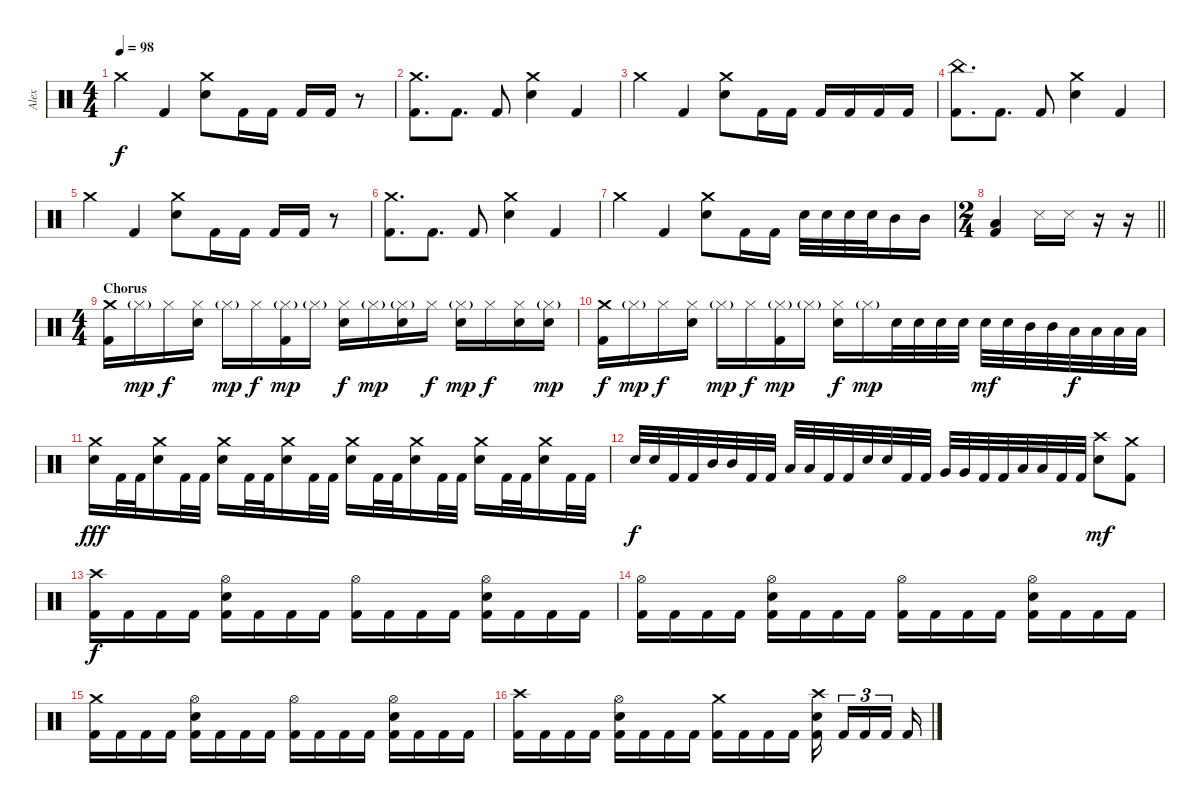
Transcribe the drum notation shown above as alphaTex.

\track ("Alex" "Alex") {instrument percussion}
\staff {score}
\articulation defaults
\ts (4 4)
\tempo 98
\clef neutral
\ks c "Crash medium (hit)".4{dy f} "Kick (hit) 2".4
("Crash medium (hit)" "Snare (hit) 2").8 "Kick (hit) 2".16 "Kick (hit) 2".16 "Kick (hit) 2".16 "Kick (hit) 2".16 r.8 |
("Crash medium (hit)" "Kick (hit) 2").8{d} "Kick (hit) 2".8{d} "Kick (hit) 2".8 ("Crash medium (hit)" "Snare (hit) 2").4 "Kick (hit) 2".4 |
"Crash medium (hit)".4 "Kick (hit) 2".4 ("Crash medium (hit)" "Snare (hit) 2").8 "Kick (hit) 2".16 "Kick (hit) 2".16 "Kick (hit) 2".16 "Kick (hit) 2".16 "Kick (hit) 2".16 "Kick (hit) 2".16 |
("China (hit)" "Kick (hit) 2").8{d} "Kick (hit) 2".8{d} "Kick (hit) 2".8 ("Crash medium (hit)" "Snare (hit) 2").4 "Kick (hit) 2".4 |
"Crash medium (hit)".4 "Kick (hit) 2".4 ("Crash medium (hit)" "Snare (hit) 2").8 "Kick (hit) 2".16 "Kick (hit) 2".16 "Kick (hit) 2".16 "Kick (hit) 2".16 r.8 |
("Crash medium (hit)" "Kick (hit) 2").8{d} "Kick (hit) 2".8{d} "Kick (hit) 2".8 ("Crash medium (hit)" "Snare (hit) 2").4 "Kick (hit) 2".4 |
"Crash medium (hit)".4 "Kick (hit) 2".4 ("Crash medium (hit)" "Snare (hit) 2").8 "Kick (hit) 2".16 "Kick (hit) 2".16 "Snare (hit) 2".32 "Snare (hit) 2".32 "Snare (hit) 2".32 "Snare (hit) 2".32 "Mid Tom (hit)".16 "Mid Tom (hit)".16 |
\ts (2 4)
\barLineRight lightlight
("Low Tom (hit)" "Kick (hit) 2").4 "Metronome (hit)".16 "Metronome (hit)".16 r.16 r.16 |
\ts (4 4)
\section ("" "Chorus")
("Crash medium (hit)" "Kick (hit) 2").16 "Hi-Hat (closed)"{g}.16{dy mp} "Hi-Hat (closed)".16{dy f} ("Hi-Hat (closed)" "Snare (hit) 2").16 "Hi-Hat (closed)"{g}.16{dy mp} "Hi-Hat (closed)".16{dy f} ("Hi-Hat (closed)"{g} "Kick (hit) 2").16{dy mp} "Hi-Hat (closed)"{g}.16 ("Hi-Hat (closed)" "Snare (hit) 2").16{dy f} "Hi-Hat (closed)"{g}.16{dy mp} ("Hi-Hat (closed)"{g} "Snare (hit) 2").16 "Hi-Hat (closed)".16{dy f} ("Hi-Hat (closed)"{g} "Snare (hit) 2").16{dy mp} "Hi-Hat (closed)".16{dy f} ("Hi-Hat (closed)" "Snare (hit) 2").16 ("Hi-Hat (closed)"{g} "Snare (hit) 2").16{dy mp} |
("Crash medium (hit)" "Kick (hit) 2").16{dy f} "Hi-Hat (closed)"{g}.16{dy mp} "Hi-Hat (closed)".16{dy f} ("Hi-Hat (closed)" "Snare (hit) 2").16 "Hi-Hat (closed)"{g}.16{dy mp} "Hi-Hat (closed)".16{dy f} ("Hi-Hat (closed)"{g} "Kick (hit) 2").16{dy mp} "Hi-Hat (closed)"{g}.16 ("Hi-Hat (closed)" "Snare (hit) 2").16{dy f} "Hi-Hat (closed)"{g}.16{dy mp} "Snare (hit) 2".32 "Snare (hit) 2".32 "Snare (hit) 2".32 "Snare (hit) 2".32 "Snare (hit) 2".32{dy mf} "Snare (hit) 2".32 "Mid Tom (hit)".32 "Mid Tom (hit)".32 "Low Tom (hit)".32{dy f} "Low Tom (hit)".32 "Low Tom (hit)".32 "Low Tom (hit)".32 |
("Crash medium (hit)" "Snare (hit) 2").16{dy fff} "Kick (hit) 2".32 "Kick (hit) 2".32 ("Crash medium (hit)" "Snare (hit) 2").16 "Kick (hit) 2".32 "Kick (hit) 2".32 ("Crash medium (hit)" "Snare (hit) 2").16 "Kick (hit) 2".32 "Kick (hit) 2".32 ("Crash medium (hit)" "Snare (hit) 2").16 "Kick (hit) 2".32 "Kick (hit) 2".32 ("Crash medium (hit)" "Snare (hit) 2").16 "Kick (hit) 2".32 "Kick (hit) 2".32 ("Crash medium (hit)" "Snare (hit) 2").16 "Kick (hit) 2".32 "Kick (hit) 2".32 ("Crash medium (hit)" "Snare (hit) 2").16 "Kick (hit) 2".32 "Kick (hit) 2".32 ("Crash medium (hit)" "Snare (hit) 2").16 "Kick (hit) 2".32 "Kick (hit) 2".32 |
"Snare (hit) 2".32{dy f} "Snare (hit) 2".32 "Kick (hit) 2".32 "Kick (hit) 2".32 "Mid Tom (hit)".32 "Mid Tom (hit)".32 "Kick (hit) 2".32 "Kick (hit) 2".32 "Low Tom (hit)".32 "Low Tom (hit)".32 "Kick (hit) 2".32 "Kick (hit) 2".32 "Snare (hit) 2".32 "Snare (hit) 2".32 "Kick (hit) 2".32 "Kick (hit) 2".32 "Very Low Tom (hit)".32 "Very Low Tom (hit)".32 "Kick (hit) 2".32 "Kick (hit) 2".32 "Low Floor Tom (hit)".32 "Low Floor Tom (hit)".32 "Kick (hit) 2".32 "Kick (hit) 2".32 ("Crash high (hit)" "Snare (hit) 2").8{dy mf} ("Crash medium (hit)" "Kick (hit) 2").8 |
("Crash high (hit)" "Kick (hit) 2").16{dy f} "Kick (hit) 2".16 "Kick (hit) 2".16 "Kick (hit) 2".16 ("Hi-Hat (open)" "Snare (hit) 2" "Kick (hit) 2").16 "Kick (hit) 2".16 "Kick (hit) 2".16 "Kick (hit) 2".16 ("Hi-Hat (open)" "Kick (hit) 2").16 "Kick (hit) 2".16 "Kick (hit) 2".16 "Kick (hit) 2".16 ("Hi-Hat (open)" "Snare (hit) 2" "Kick (hit) 2").16 "Kick (hit) 2".16 "Kick (hit) 2".16 "Kick (hit) 2".16 |
("Hi-Hat (open)" "Kick (hit) 2").16 "Kick (hit) 2".16 "Kick (hit) 2".16 "Kick (hit) 2".16 ("Hi-Hat (open)" "Snare (hit) 2" "Kick (hit) 2").16 "Kick (hit) 2".16 "Kick (hit) 2".16 "Kick (hit) 2".16 ("Hi-Hat (open)" "Kick (hit) 2").16 "Kick (hit) 2".16 "Kick (hit) 2".16 "Kick (hit) 2".16 ("Hi-Hat (open)" "Snare (hit) 2" "Kick (hit) 2").16 "Kick (hit) 2".16 "Kick (hit) 2".16 "Kick (hit) 2".16 |
("Crash medium (hit)" "Kick (hit) 2").16 "Kick (hit) 2".16 "Kick (hit) 2".16 "Kick (hit) 2".16 ("Hi-Hat (open)" "Snare (hit) 2" "Kick (hit) 2").16 "Kick (hit) 2".16 "Kick (hit) 2".16 "Kick (hit) 2".16 ("Hi-Hat (open)" "Kick (hit) 2").16 "Kick (hit) 2".16 "Kick (hit) 2".16 "Kick (hit) 2".16 ("Hi-Hat (open)" "Snare (hit) 2" "Kick (hit) 2").16 "Kick (hit) 2".16 "Kick (hit) 2".16 "Kick (hit) 2".16 |
("Crash high (hit)" "Kick (hit) 2").16 "Kick (hit) 2".16 "Kick (hit) 2".16 "Kick (hit) 2".16 ("Hi-Hat (open)" "Snare (hit) 2" "Kick (hit) 2").16 "Kick (hit) 2".16 "Kick (hit) 2".16 "Kick (hit) 2".16 ("Crash medium (hit)" "Kick (hit) 2").16 "Kick (hit) 2".16 "Kick (hit) 2".16 "Kick (hit) 2".16 ("Crash high (hit)" "Snare (hit) 2" "Kick (hit) 2").16{beam splitsecondary} "Kick (hit) 2".16{tu (3 2)} "Kick (hit) 2".16{tu (3 2)} "Kick (hit) 2".16{tu (3 2) beam splitsecondary} "Kick (hit) 2".16
